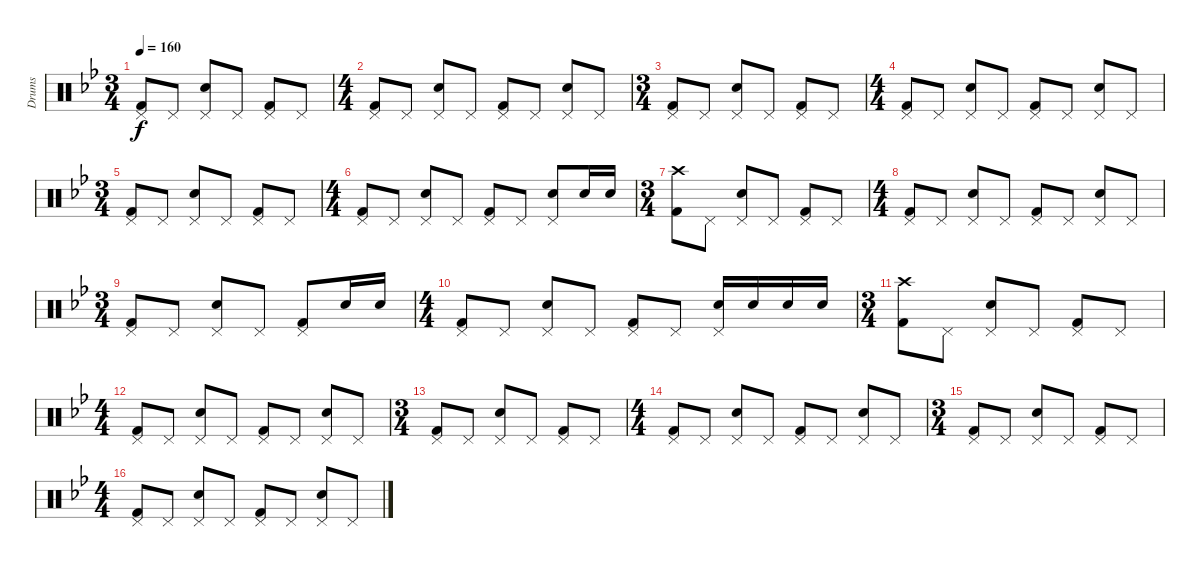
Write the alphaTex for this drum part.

\track ("Drums" "Drums") {instrument percussion}
\staff {score}
\articulation defaults
\ts (3 4)
\tempo 160
\clef neutral
\ks bb
("Pedal Hi-Hat (hit)" "Kick (hit) 2").8{dy f} "Pedal Hi-Hat (hit)".8 ("Pedal Hi-Hat (hit)" "Electric Snare (hit)").8 "Pedal Hi-Hat (hit)".8 ("Pedal Hi-Hat (hit)" "Kick (hit) 2").8 "Pedal Hi-Hat (hit)".8 |
\ts (4 4)
("Pedal Hi-Hat (hit)" "Kick (hit) 2").8 "Pedal Hi-Hat (hit)".8 ("Pedal Hi-Hat (hit)" "Electric Snare (hit)").8 "Pedal Hi-Hat (hit)".8 ("Pedal Hi-Hat (hit)" "Kick (hit) 2").8 "Pedal Hi-Hat (hit)".8 ("Pedal Hi-Hat (hit)" "Electric Snare (hit)").8 "Pedal Hi-Hat (hit)".8 |
\ts (3 4)
("Pedal Hi-Hat (hit)" "Kick (hit) 2").8 "Pedal Hi-Hat (hit)".8 ("Pedal Hi-Hat (hit)" "Electric Snare (hit)").8 "Pedal Hi-Hat (hit)".8 ("Pedal Hi-Hat (hit)" "Kick (hit) 2").8 "Pedal Hi-Hat (hit)".8 |
\ts (4 4)
("Pedal Hi-Hat (hit)" "Kick (hit) 2").8 "Pedal Hi-Hat (hit)".8 ("Pedal Hi-Hat (hit)" "Electric Snare (hit)").8 "Pedal Hi-Hat (hit)".8 ("Pedal Hi-Hat (hit)" "Kick (hit) 2").8 "Pedal Hi-Hat (hit)".8 ("Pedal Hi-Hat (hit)" "Electric Snare (hit)").8 "Pedal Hi-Hat (hit)".8 |
\ts (3 4)
("Pedal Hi-Hat (hit)" "Kick (hit) 2").8 "Pedal Hi-Hat (hit)".8 ("Pedal Hi-Hat (hit)" "Electric Snare (hit)").8 "Pedal Hi-Hat (hit)".8 ("Pedal Hi-Hat (hit)" "Kick (hit) 2").8 "Pedal Hi-Hat (hit)".8 |
\ts (4 4)
("Pedal Hi-Hat (hit)" "Kick (hit) 2").8 "Pedal Hi-Hat (hit)".8 ("Pedal Hi-Hat (hit)" "Electric Snare (hit)").8 "Pedal Hi-Hat (hit)".8 ("Pedal Hi-Hat (hit)" "Kick (hit) 2").8 "Pedal Hi-Hat (hit)".8 ("Pedal Hi-Hat (hit)" "Electric Snare (hit)").8 "Electric Snare (hit)".16 "Electric Snare (hit)".16 |
\ts (3 4)
("Crash high (hit)" "Kick (hit) 2").8 "Pedal Hi-Hat (hit)".8 ("Pedal Hi-Hat (hit)" "Electric Snare (hit)").8 "Pedal Hi-Hat (hit)".8 ("Pedal Hi-Hat (hit)" "Kick (hit) 2").8 "Pedal Hi-Hat (hit)".8 |
\ts (4 4)
("Pedal Hi-Hat (hit)" "Kick (hit) 2").8 "Pedal Hi-Hat (hit)".8 ("Pedal Hi-Hat (hit)" "Electric Snare (hit)").8 "Pedal Hi-Hat (hit)".8 ("Pedal Hi-Hat (hit)" "Kick (hit) 2").8 "Pedal Hi-Hat (hit)".8 ("Pedal Hi-Hat (hit)" "Electric Snare (hit)").8 "Pedal Hi-Hat (hit)".8 |
\ts (3 4)
("Pedal Hi-Hat (hit)" "Kick (hit) 2").8 "Pedal Hi-Hat (hit)".8 ("Pedal Hi-Hat (hit)" "Electric Snare (hit)").8 "Pedal Hi-Hat (hit)".8 ("Pedal Hi-Hat (hit)" "Kick (hit) 2").8 "Electric Snare (hit)".16 "Electric Snare (hit)".16 |
\ts (4 4)
("Pedal Hi-Hat (hit)" "Kick (hit) 2").8 "Pedal Hi-Hat (hit)".8 ("Pedal Hi-Hat (hit)" "Electric Snare (hit)").8 "Pedal Hi-Hat (hit)".8 ("Pedal Hi-Hat (hit)" "Kick (hit) 2").8 "Pedal Hi-Hat (hit)".8 ("Pedal Hi-Hat (hit)" "Electric Snare (hit)").16 "Electric Snare (hit)".16 "Electric Snare (hit)".16 "Electric Snare (hit)".16 |
\ts (3 4)
("Crash high (hit)" "Kick (hit) 2").8 "Pedal Hi-Hat (hit)".8 ("Pedal Hi-Hat (hit)" "Electric Snare (hit)").8 "Pedal Hi-Hat (hit)".8 ("Pedal Hi-Hat (hit)" "Kick (hit) 2").8 "Pedal Hi-Hat (hit)".8 |
\ts (4 4)
("Pedal Hi-Hat (hit)" "Kick (hit) 2").8 "Pedal Hi-Hat (hit)".8 ("Pedal Hi-Hat (hit)" "Electric Snare (hit)").8 "Pedal Hi-Hat (hit)".8 ("Pedal Hi-Hat (hit)" "Kick (hit) 2").8 "Pedal Hi-Hat (hit)".8 ("Pedal Hi-Hat (hit)" "Electric Snare (hit)").8 "Pedal Hi-Hat (hit)".8 |
\ts (3 4)
("Pedal Hi-Hat (hit)" "Kick (hit) 2").8 "Pedal Hi-Hat (hit)".8 ("Pedal Hi-Hat (hit)" "Electric Snare (hit)").8 "Pedal Hi-Hat (hit)".8 ("Pedal Hi-Hat (hit)" "Kick (hit) 2").8 "Pedal Hi-Hat (hit)".8 |
\ts (4 4)
("Pedal Hi-Hat (hit)" "Kick (hit) 2").8 "Pedal Hi-Hat (hit)".8 ("Pedal Hi-Hat (hit)" "Electric Snare (hit)").8 "Pedal Hi-Hat (hit)".8 ("Pedal Hi-Hat (hit)" "Kick (hit) 2").8 "Pedal Hi-Hat (hit)".8 ("Pedal Hi-Hat (hit)" "Electric Snare (hit)").8 "Pedal Hi-Hat (hit)".8 |
\ts (3 4)
("Pedal Hi-Hat (hit)" "Kick (hit) 2").8 "Pedal Hi-Hat (hit)".8 ("Pedal Hi-Hat (hit)" "Electric Snare (hit)").8 "Pedal Hi-Hat (hit)".8 ("Pedal Hi-Hat (hit)" "Kick (hit) 2").8 "Pedal Hi-Hat (hit)".8 |
\ts (4 4)
("Pedal Hi-Hat (hit)" "Kick (hit) 2").8 "Pedal Hi-Hat (hit)".8 ("Pedal Hi-Hat (hit)" "Electric Snare (hit)").8 "Pedal Hi-Hat (hit)".8 ("Pedal Hi-Hat (hit)" "Kick (hit) 2").8 "Pedal Hi-Hat (hit)".8 ("Pedal Hi-Hat (hit)" "Electric Snare (hit)").8 "Pedal Hi-Hat (hit)".8
